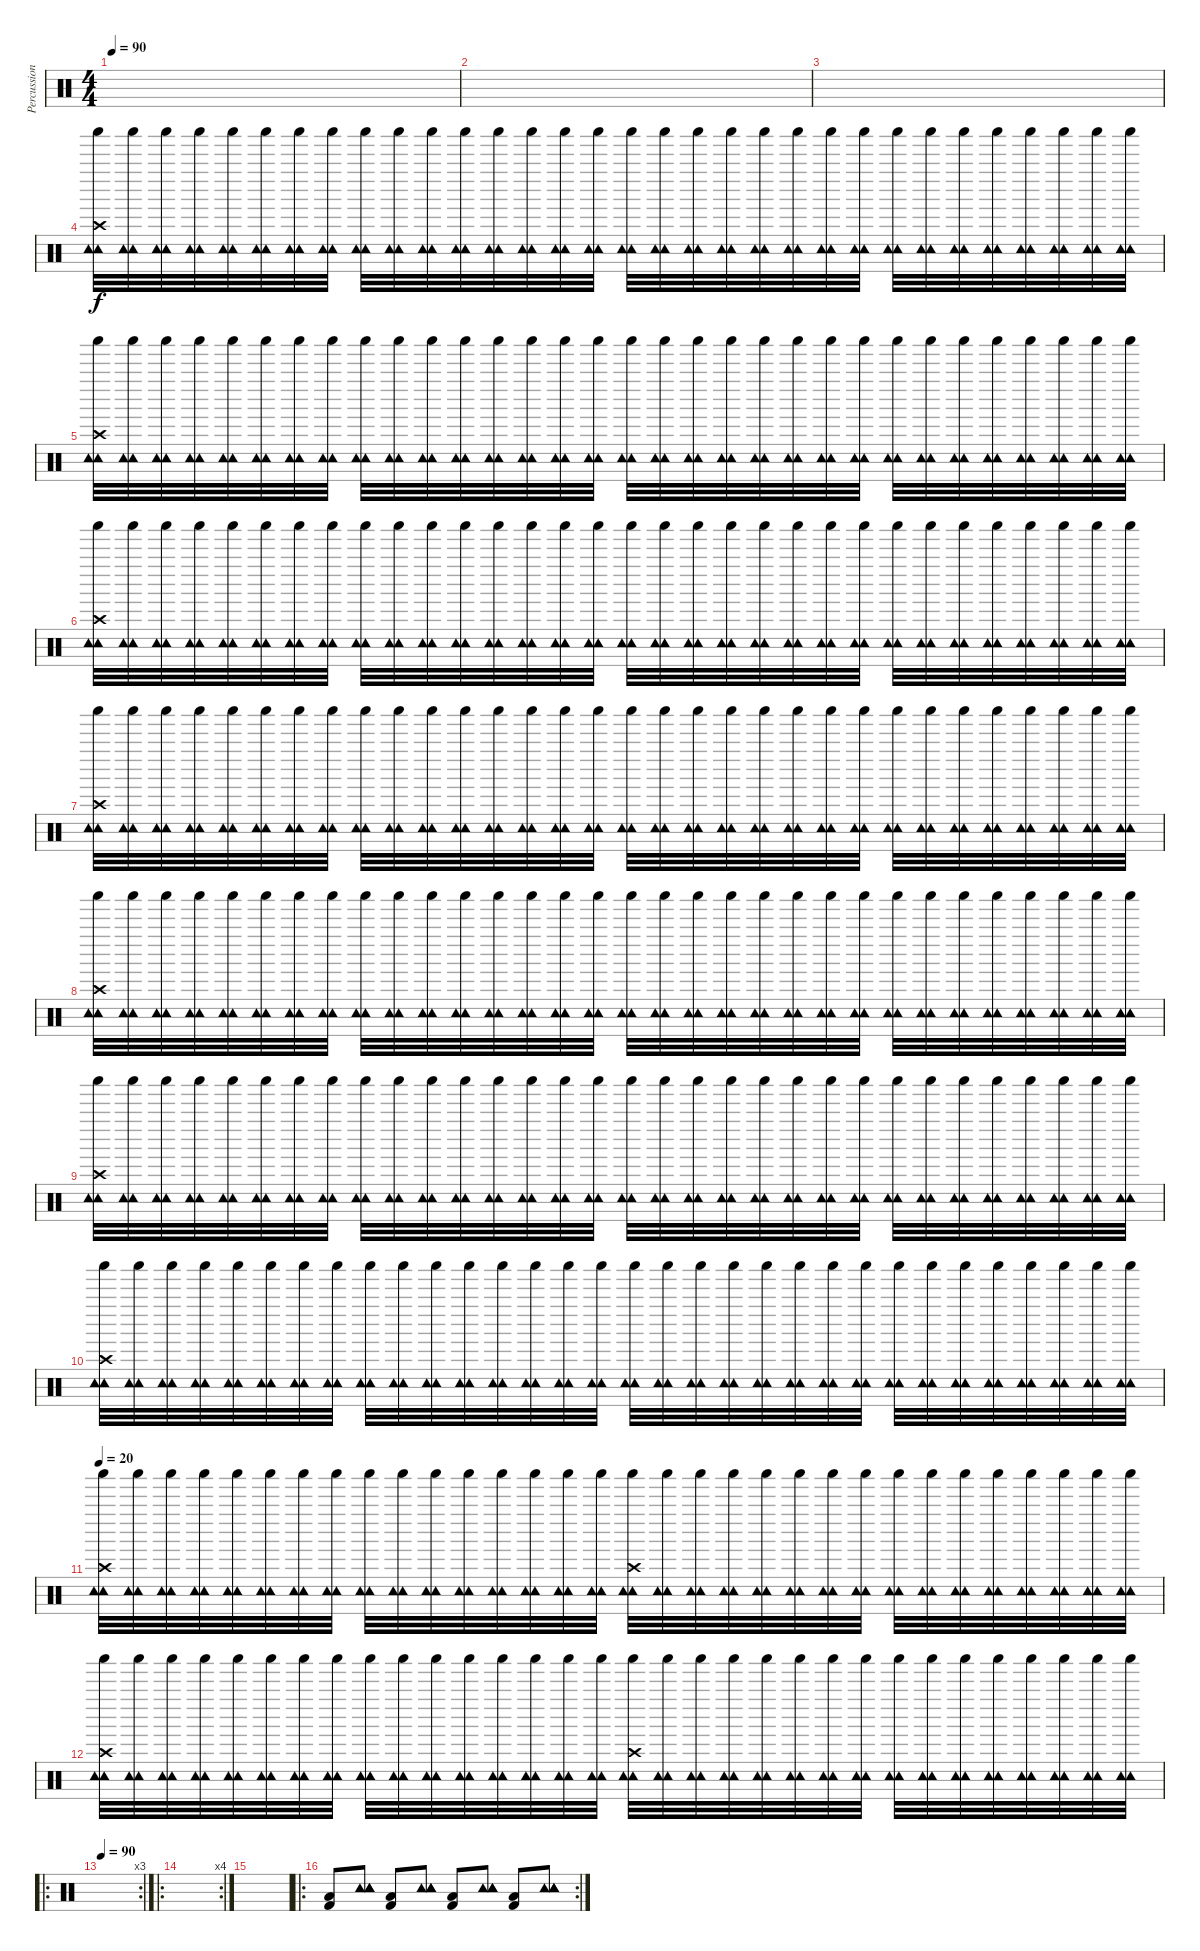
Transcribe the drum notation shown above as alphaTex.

\track ("Percussion" "Percussion") {instrument percussion}
\staff {score}
\articulation defaults
\ts (4 4)
\tempo 90
\clef neutral
\ks c
|
|
|
("Crash high (hit)" "Shaker (hit)" "Tambourine (hit)" "Tambourine (hit)").32 ("Shaker (hit)" "Tambourine (hit)" "Tambourine (hit)").32 ("Shaker (hit)" "Tambourine (hit)" "Tambourine (hit)").32 ("Shaker (hit)" "Tambourine (hit)" "Tambourine (hit)").32 ("Shaker (hit)" "Tambourine (hit)" "Tambourine (hit)").32 ("Shaker (hit)" "Tambourine (hit)" "Tambourine (hit)").32 ("Shaker (hit)" "Tambourine (hit)" "Tambourine (hit)").32 ("Shaker (hit)" "Tambourine (hit)" "Tambourine (hit)").32 ("Shaker (hit)" "Tambourine (hit)" "Tambourine (hit)").32 ("Shaker (hit)" "Tambourine (hit)" "Tambourine (hit)").32 ("Shaker (hit)" "Tambourine (hit)" "Tambourine (hit)").32 ("Shaker (hit)" "Tambourine (hit)" "Tambourine (hit)").32 ("Shaker (hit)" "Tambourine (hit)" "Tambourine (hit)").32 ("Shaker (hit)" "Tambourine (hit)" "Tambourine (hit)").32 ("Shaker (hit)" "Tambourine (hit)" "Tambourine (hit)").32 ("Shaker (hit)" "Tambourine (hit)" "Tambourine (hit)").32 ("Shaker (hit)" "Tambourine (hit)" "Tambourine (hit)").32 ("Shaker (hit)" "Tambourine (hit)" "Tambourine (hit)").32 ("Shaker (hit)" "Tambourine (hit)" "Tambourine (hit)").32 ("Shaker (hit)" "Tambourine (hit)" "Tambourine (hit)").32 ("Shaker (hit)" "Tambourine (hit)" "Tambourine (hit)").32 ("Shaker (hit)" "Tambourine (hit)" "Tambourine (hit)").32 ("Shaker (hit)" "Tambourine (hit)" "Tambourine (hit)").32 ("Shaker (hit)" "Tambourine (hit)" "Tambourine (hit)").32 ("Shaker (hit)" "Tambourine (hit)" "Tambourine (hit)").32 ("Shaker (hit)" "Tambourine (hit)" "Tambourine (hit)").32 ("Shaker (hit)" "Tambourine (hit)" "Tambourine (hit)").32 ("Shaker (hit)" "Tambourine (hit)" "Tambourine (hit)").32 ("Shaker (hit)" "Tambourine (hit)" "Tambourine (hit)").32 ("Shaker (hit)" "Tambourine (hit)" "Tambourine (hit)").32 ("Shaker (hit)" "Tambourine (hit)" "Tambourine (hit)").32 ("Shaker (hit)" "Tambourine (hit)" "Tambourine (hit)").32 |
("Crash high (hit)" "Shaker (hit)" "Tambourine (hit)" "Tambourine (hit)").32 ("Shaker (hit)" "Tambourine (hit)" "Tambourine (hit)").32 ("Shaker (hit)" "Tambourine (hit)" "Tambourine (hit)").32 ("Shaker (hit)" "Tambourine (hit)" "Tambourine (hit)").32 ("Shaker (hit)" "Tambourine (hit)" "Tambourine (hit)").32 ("Shaker (hit)" "Tambourine (hit)" "Tambourine (hit)").32 ("Shaker (hit)" "Tambourine (hit)" "Tambourine (hit)").32 ("Shaker (hit)" "Tambourine (hit)" "Tambourine (hit)").32 ("Shaker (hit)" "Tambourine (hit)" "Tambourine (hit)").32 ("Shaker (hit)" "Tambourine (hit)" "Tambourine (hit)").32 ("Shaker (hit)" "Tambourine (hit)" "Tambourine (hit)").32 ("Shaker (hit)" "Tambourine (hit)" "Tambourine (hit)").32 ("Shaker (hit)" "Tambourine (hit)" "Tambourine (hit)").32 ("Shaker (hit)" "Tambourine (hit)" "Tambourine (hit)").32 ("Shaker (hit)" "Tambourine (hit)" "Tambourine (hit)").32 ("Shaker (hit)" "Tambourine (hit)" "Tambourine (hit)").32 ("Shaker (hit)" "Tambourine (hit)" "Tambourine (hit)").32 ("Shaker (hit)" "Tambourine (hit)" "Tambourine (hit)").32 ("Shaker (hit)" "Tambourine (hit)" "Tambourine (hit)").32 ("Shaker (hit)" "Tambourine (hit)" "Tambourine (hit)").32 ("Shaker (hit)" "Tambourine (hit)" "Tambourine (hit)").32 ("Shaker (hit)" "Tambourine (hit)" "Tambourine (hit)").32 ("Shaker (hit)" "Tambourine (hit)" "Tambourine (hit)").32 ("Shaker (hit)" "Tambourine (hit)" "Tambourine (hit)").32 ("Shaker (hit)" "Tambourine (hit)" "Tambourine (hit)").32 ("Shaker (hit)" "Tambourine (hit)" "Tambourine (hit)").32 ("Shaker (hit)" "Tambourine (hit)" "Tambourine (hit)").32 ("Shaker (hit)" "Tambourine (hit)" "Tambourine (hit)").32 ("Shaker (hit)" "Tambourine (hit)" "Tambourine (hit)").32 ("Shaker (hit)" "Tambourine (hit)" "Tambourine (hit)").32 ("Shaker (hit)" "Tambourine (hit)" "Tambourine (hit)").32 ("Shaker (hit)" "Tambourine (hit)" "Tambourine (hit)").32 |
("Crash high (hit)" "Shaker (hit)" "Tambourine (hit)" "Tambourine (hit)").32 ("Shaker (hit)" "Tambourine (hit)" "Tambourine (hit)").32 ("Shaker (hit)" "Tambourine (hit)" "Tambourine (hit)").32 ("Shaker (hit)" "Tambourine (hit)" "Tambourine (hit)").32 ("Shaker (hit)" "Tambourine (hit)" "Tambourine (hit)").32 ("Shaker (hit)" "Tambourine (hit)" "Tambourine (hit)").32 ("Shaker (hit)" "Tambourine (hit)" "Tambourine (hit)").32 ("Shaker (hit)" "Tambourine (hit)" "Tambourine (hit)").32 ("Shaker (hit)" "Tambourine (hit)" "Tambourine (hit)").32 ("Shaker (hit)" "Tambourine (hit)" "Tambourine (hit)").32 ("Shaker (hit)" "Tambourine (hit)" "Tambourine (hit)").32 ("Shaker (hit)" "Tambourine (hit)" "Tambourine (hit)").32 ("Shaker (hit)" "Tambourine (hit)" "Tambourine (hit)").32 ("Shaker (hit)" "Tambourine (hit)" "Tambourine (hit)").32 ("Shaker (hit)" "Tambourine (hit)" "Tambourine (hit)").32 ("Shaker (hit)" "Tambourine (hit)" "Tambourine (hit)").32 ("Shaker (hit)" "Tambourine (hit)" "Tambourine (hit)").32 ("Shaker (hit)" "Tambourine (hit)" "Tambourine (hit)").32 ("Shaker (hit)" "Tambourine (hit)" "Tambourine (hit)").32 ("Shaker (hit)" "Tambourine (hit)" "Tambourine (hit)").32 ("Shaker (hit)" "Tambourine (hit)" "Tambourine (hit)").32 ("Shaker (hit)" "Tambourine (hit)" "Tambourine (hit)").32 ("Shaker (hit)" "Tambourine (hit)" "Tambourine (hit)").32 ("Shaker (hit)" "Tambourine (hit)" "Tambourine (hit)").32 ("Shaker (hit)" "Tambourine (hit)" "Tambourine (hit)").32 ("Shaker (hit)" "Tambourine (hit)" "Tambourine (hit)").32 ("Shaker (hit)" "Tambourine (hit)" "Tambourine (hit)").32 ("Shaker (hit)" "Tambourine (hit)" "Tambourine (hit)").32 ("Shaker (hit)" "Tambourine (hit)" "Tambourine (hit)").32 ("Shaker (hit)" "Tambourine (hit)" "Tambourine (hit)").32 ("Shaker (hit)" "Tambourine (hit)" "Tambourine (hit)").32 ("Shaker (hit)" "Tambourine (hit)" "Tambourine (hit)").32 |
("Crash high (hit)" "Shaker (hit)" "Tambourine (hit)" "Tambourine (hit)").32 ("Shaker (hit)" "Tambourine (hit)" "Tambourine (hit)").32 ("Shaker (hit)" "Tambourine (hit)" "Tambourine (hit)").32 ("Shaker (hit)" "Tambourine (hit)" "Tambourine (hit)").32 ("Shaker (hit)" "Tambourine (hit)" "Tambourine (hit)").32 ("Shaker (hit)" "Tambourine (hit)" "Tambourine (hit)").32 ("Shaker (hit)" "Tambourine (hit)" "Tambourine (hit)").32 ("Shaker (hit)" "Tambourine (hit)" "Tambourine (hit)").32 ("Shaker (hit)" "Tambourine (hit)" "Tambourine (hit)").32 ("Shaker (hit)" "Tambourine (hit)" "Tambourine (hit)").32 ("Shaker (hit)" "Tambourine (hit)" "Tambourine (hit)").32 ("Shaker (hit)" "Tambourine (hit)" "Tambourine (hit)").32 ("Shaker (hit)" "Tambourine (hit)" "Tambourine (hit)").32 ("Shaker (hit)" "Tambourine (hit)" "Tambourine (hit)").32 ("Shaker (hit)" "Tambourine (hit)" "Tambourine (hit)").32 ("Shaker (hit)" "Tambourine (hit)" "Tambourine (hit)").32 ("Shaker (hit)" "Tambourine (hit)" "Tambourine (hit)").32 ("Shaker (hit)" "Tambourine (hit)" "Tambourine (hit)").32 ("Shaker (hit)" "Tambourine (hit)" "Tambourine (hit)").32 ("Shaker (hit)" "Tambourine (hit)" "Tambourine (hit)").32 ("Shaker (hit)" "Tambourine (hit)" "Tambourine (hit)").32 ("Shaker (hit)" "Tambourine (hit)" "Tambourine (hit)").32 ("Shaker (hit)" "Tambourine (hit)" "Tambourine (hit)").32 ("Shaker (hit)" "Tambourine (hit)" "Tambourine (hit)").32 ("Shaker (hit)" "Tambourine (hit)" "Tambourine (hit)").32 ("Shaker (hit)" "Tambourine (hit)" "Tambourine (hit)").32 ("Shaker (hit)" "Tambourine (hit)" "Tambourine (hit)").32 ("Shaker (hit)" "Tambourine (hit)" "Tambourine (hit)").32 ("Shaker (hit)" "Tambourine (hit)" "Tambourine (hit)").32 ("Shaker (hit)" "Tambourine (hit)" "Tambourine (hit)").32 ("Shaker (hit)" "Tambourine (hit)" "Tambourine (hit)").32 ("Shaker (hit)" "Tambourine (hit)" "Tambourine (hit)").32 |
("Crash high (hit)" "Shaker (hit)" "Tambourine (hit)" "Tambourine (hit)").32 ("Shaker (hit)" "Tambourine (hit)" "Tambourine (hit)").32 ("Shaker (hit)" "Tambourine (hit)" "Tambourine (hit)").32 ("Shaker (hit)" "Tambourine (hit)" "Tambourine (hit)").32 ("Shaker (hit)" "Tambourine (hit)" "Tambourine (hit)").32 ("Shaker (hit)" "Tambourine (hit)" "Tambourine (hit)").32 ("Shaker (hit)" "Tambourine (hit)" "Tambourine (hit)").32 ("Shaker (hit)" "Tambourine (hit)" "Tambourine (hit)").32 ("Shaker (hit)" "Tambourine (hit)" "Tambourine (hit)").32 ("Shaker (hit)" "Tambourine (hit)" "Tambourine (hit)").32 ("Shaker (hit)" "Tambourine (hit)" "Tambourine (hit)").32 ("Shaker (hit)" "Tambourine (hit)" "Tambourine (hit)").32 ("Shaker (hit)" "Tambourine (hit)" "Tambourine (hit)").32 ("Shaker (hit)" "Tambourine (hit)" "Tambourine (hit)").32 ("Shaker (hit)" "Tambourine (hit)" "Tambourine (hit)").32 ("Shaker (hit)" "Tambourine (hit)" "Tambourine (hit)").32 ("Shaker (hit)" "Tambourine (hit)" "Tambourine (hit)").32 ("Shaker (hit)" "Tambourine (hit)" "Tambourine (hit)").32 ("Shaker (hit)" "Tambourine (hit)" "Tambourine (hit)").32 ("Shaker (hit)" "Tambourine (hit)" "Tambourine (hit)").32 ("Shaker (hit)" "Tambourine (hit)" "Tambourine (hit)").32 ("Shaker (hit)" "Tambourine (hit)" "Tambourine (hit)").32 ("Shaker (hit)" "Tambourine (hit)" "Tambourine (hit)").32 ("Shaker (hit)" "Tambourine (hit)" "Tambourine (hit)").32 ("Shaker (hit)" "Tambourine (hit)" "Tambourine (hit)").32 ("Shaker (hit)" "Tambourine (hit)" "Tambourine (hit)").32 ("Shaker (hit)" "Tambourine (hit)" "Tambourine (hit)").32 ("Shaker (hit)" "Tambourine (hit)" "Tambourine (hit)").32 ("Shaker (hit)" "Tambourine (hit)" "Tambourine (hit)").32 ("Shaker (hit)" "Tambourine (hit)" "Tambourine (hit)").32 ("Shaker (hit)" "Tambourine (hit)" "Tambourine (hit)").32 ("Shaker (hit)" "Tambourine (hit)" "Tambourine (hit)").32 |
("Crash high (hit)" "Shaker (hit)" "Tambourine (hit)" "Tambourine (hit)").32 ("Shaker (hit)" "Tambourine (hit)" "Tambourine (hit)").32 ("Shaker (hit)" "Tambourine (hit)" "Tambourine (hit)").32 ("Shaker (hit)" "Tambourine (hit)" "Tambourine (hit)").32 ("Shaker (hit)" "Tambourine (hit)" "Tambourine (hit)").32 ("Shaker (hit)" "Tambourine (hit)" "Tambourine (hit)").32 ("Shaker (hit)" "Tambourine (hit)" "Tambourine (hit)").32 ("Shaker (hit)" "Tambourine (hit)" "Tambourine (hit)").32 ("Shaker (hit)" "Tambourine (hit)" "Tambourine (hit)").32 ("Shaker (hit)" "Tambourine (hit)" "Tambourine (hit)").32 ("Shaker (hit)" "Tambourine (hit)" "Tambourine (hit)").32 ("Shaker (hit)" "Tambourine (hit)" "Tambourine (hit)").32 ("Shaker (hit)" "Tambourine (hit)" "Tambourine (hit)").32 ("Shaker (hit)" "Tambourine (hit)" "Tambourine (hit)").32 ("Shaker (hit)" "Tambourine (hit)" "Tambourine (hit)").32 ("Shaker (hit)" "Tambourine (hit)" "Tambourine (hit)").32 ("Shaker (hit)" "Tambourine (hit)" "Tambourine (hit)").32 ("Shaker (hit)" "Tambourine (hit)" "Tambourine (hit)").32 ("Shaker (hit)" "Tambourine (hit)" "Tambourine (hit)").32 ("Shaker (hit)" "Tambourine (hit)" "Tambourine (hit)").32 ("Shaker (hit)" "Tambourine (hit)" "Tambourine (hit)").32 ("Shaker (hit)" "Tambourine (hit)" "Tambourine (hit)").32 ("Shaker (hit)" "Tambourine (hit)" "Tambourine (hit)").32 ("Shaker (hit)" "Tambourine (hit)" "Tambourine (hit)").32 ("Shaker (hit)" "Tambourine (hit)" "Tambourine (hit)").32 ("Shaker (hit)" "Tambourine (hit)" "Tambourine (hit)").32 ("Shaker (hit)" "Tambourine (hit)" "Tambourine (hit)").32 ("Shaker (hit)" "Tambourine (hit)" "Tambourine (hit)").32 ("Shaker (hit)" "Tambourine (hit)" "Tambourine (hit)").32 ("Shaker (hit)" "Tambourine (hit)" "Tambourine (hit)").32 ("Shaker (hit)" "Tambourine (hit)" "Tambourine (hit)").32 ("Shaker (hit)" "Tambourine (hit)" "Tambourine (hit)").32 |
("Crash high (hit)" "Shaker (hit)" "Tambourine (hit)" "Tambourine (hit)").32 ("Shaker (hit)" "Tambourine (hit)" "Tambourine (hit)").32 ("Shaker (hit)" "Tambourine (hit)" "Tambourine (hit)").32 ("Shaker (hit)" "Tambourine (hit)" "Tambourine (hit)").32 ("Shaker (hit)" "Tambourine (hit)" "Tambourine (hit)").32 ("Shaker (hit)" "Tambourine (hit)" "Tambourine (hit)").32 ("Shaker (hit)" "Tambourine (hit)" "Tambourine (hit)").32 ("Shaker (hit)" "Tambourine (hit)" "Tambourine (hit)").32 ("Shaker (hit)" "Tambourine (hit)" "Tambourine (hit)").32 ("Shaker (hit)" "Tambourine (hit)" "Tambourine (hit)").32 ("Shaker (hit)" "Tambourine (hit)" "Tambourine (hit)").32 ("Shaker (hit)" "Tambourine (hit)" "Tambourine (hit)").32 ("Shaker (hit)" "Tambourine (hit)" "Tambourine (hit)").32 ("Shaker (hit)" "Tambourine (hit)" "Tambourine (hit)").32 ("Shaker (hit)" "Tambourine (hit)" "Tambourine (hit)").32 ("Shaker (hit)" "Tambourine (hit)" "Tambourine (hit)").32 ("Shaker (hit)" "Tambourine (hit)" "Tambourine (hit)").32 ("Shaker (hit)" "Tambourine (hit)" "Tambourine (hit)").32 ("Shaker (hit)" "Tambourine (hit)" "Tambourine (hit)").32 ("Shaker (hit)" "Tambourine (hit)" "Tambourine (hit)").32 ("Shaker (hit)" "Tambourine (hit)" "Tambourine (hit)").32 ("Shaker (hit)" "Tambourine (hit)" "Tambourine (hit)").32 ("Shaker (hit)" "Tambourine (hit)" "Tambourine (hit)").32 ("Shaker (hit)" "Tambourine (hit)" "Tambourine (hit)").32 ("Shaker (hit)" "Tambourine (hit)" "Tambourine (hit)").32 ("Shaker (hit)" "Tambourine (hit)" "Tambourine (hit)").32 ("Shaker (hit)" "Tambourine (hit)" "Tambourine (hit)").32 ("Shaker (hit)" "Tambourine (hit)" "Tambourine (hit)").32 ("Shaker (hit)" "Tambourine (hit)" "Tambourine (hit)").32 ("Shaker (hit)" "Tambourine (hit)" "Tambourine (hit)").32 ("Shaker (hit)" "Tambourine (hit)" "Tambourine (hit)").32 ("Shaker (hit)" "Tambourine (hit)" "Tambourine (hit)").32 |
\tempo 20
("Crash high (hit)" "Shaker (hit)" "Tambourine (hit)" "Tambourine (hit)").32 ("Shaker (hit)" "Tambourine (hit)" "Tambourine (hit)").32 ("Shaker (hit)" "Tambourine (hit)" "Tambourine (hit)").32 ("Shaker (hit)" "Tambourine (hit)" "Tambourine (hit)").32 ("Shaker (hit)" "Tambourine (hit)" "Tambourine (hit)").32 ("Shaker (hit)" "Tambourine (hit)" "Tambourine (hit)").32 ("Shaker (hit)" "Tambourine (hit)" "Tambourine (hit)").32 ("Shaker (hit)" "Tambourine (hit)" "Tambourine (hit)").32 ("Shaker (hit)" "Tambourine (hit)" "Tambourine (hit)").32 ("Shaker (hit)" "Tambourine (hit)" "Tambourine (hit)").32 ("Shaker (hit)" "Tambourine (hit)" "Tambourine (hit)").32 ("Shaker (hit)" "Tambourine (hit)" "Tambourine (hit)").32 ("Shaker (hit)" "Tambourine (hit)" "Tambourine (hit)").32 ("Shaker (hit)" "Tambourine (hit)" "Tambourine (hit)").32 ("Shaker (hit)" "Tambourine (hit)" "Tambourine (hit)").32 ("Shaker (hit)" "Tambourine (hit)" "Tambourine (hit)").32 ("Crash high (hit)" "Shaker (hit)" "Tambourine (hit)" "Tambourine (hit)").32 ("Shaker (hit)" "Tambourine (hit)" "Tambourine (hit)").32 ("Shaker (hit)" "Tambourine (hit)" "Tambourine (hit)").32 ("Shaker (hit)" "Tambourine (hit)" "Tambourine (hit)").32 ("Shaker (hit)" "Tambourine (hit)" "Tambourine (hit)").32 ("Shaker (hit)" "Tambourine (hit)" "Tambourine (hit)").32 ("Shaker (hit)" "Tambourine (hit)" "Tambourine (hit)").32 ("Shaker (hit)" "Tambourine (hit)" "Tambourine (hit)").32 ("Shaker (hit)" "Tambourine (hit)" "Tambourine (hit)").32 ("Shaker (hit)" "Tambourine (hit)" "Tambourine (hit)").32 ("Shaker (hit)" "Tambourine (hit)" "Tambourine (hit)").32 ("Shaker (hit)" "Tambourine (hit)" "Tambourine (hit)").32 ("Shaker (hit)" "Tambourine (hit)" "Tambourine (hit)").32 ("Shaker (hit)" "Tambourine (hit)" "Tambourine (hit)").32 ("Shaker (hit)" "Tambourine (hit)" "Tambourine (hit)").32 ("Shaker (hit)" "Tambourine (hit)" "Tambourine (hit)").32 |
("Crash high (hit)" "Shaker (hit)" "Tambourine (hit)" "Tambourine (hit)").32 ("Shaker (hit)" "Tambourine (hit)" "Tambourine (hit)").32 ("Shaker (hit)" "Tambourine (hit)" "Tambourine (hit)").32 ("Shaker (hit)" "Tambourine (hit)" "Tambourine (hit)").32 ("Shaker (hit)" "Tambourine (hit)" "Tambourine (hit)").32 ("Shaker (hit)" "Tambourine (hit)" "Tambourine (hit)").32 ("Shaker (hit)" "Tambourine (hit)" "Tambourine (hit)").32 ("Shaker (hit)" "Tambourine (hit)" "Tambourine (hit)").32 ("Shaker (hit)" "Tambourine (hit)" "Tambourine (hit)").32 ("Shaker (hit)" "Tambourine (hit)" "Tambourine (hit)").32 ("Shaker (hit)" "Tambourine (hit)" "Tambourine (hit)").32 ("Shaker (hit)" "Tambourine (hit)" "Tambourine (hit)").32 ("Shaker (hit)" "Tambourine (hit)" "Tambourine (hit)").32 ("Shaker (hit)" "Tambourine (hit)" "Tambourine (hit)").32 ("Shaker (hit)" "Tambourine (hit)" "Tambourine (hit)").32 ("Shaker (hit)" "Tambourine (hit)" "Tambourine (hit)").32 ("Crash high (hit)" "Shaker (hit)" "Tambourine (hit)" "Tambourine (hit)").32 ("Shaker (hit)" "Tambourine (hit)" "Tambourine (hit)").32 ("Shaker (hit)" "Tambourine (hit)" "Tambourine (hit)").32 ("Shaker (hit)" "Tambourine (hit)" "Tambourine (hit)").32 ("Shaker (hit)" "Tambourine (hit)" "Tambourine (hit)").32 ("Shaker (hit)" "Tambourine (hit)" "Tambourine (hit)").32 ("Shaker (hit)" "Tambourine (hit)" "Tambourine (hit)").32 ("Shaker (hit)" "Tambourine (hit)" "Tambourine (hit)").32 ("Shaker (hit)" "Tambourine (hit)" "Tambourine (hit)").32 ("Shaker (hit)" "Tambourine (hit)" "Tambourine (hit)").32 ("Shaker (hit)" "Tambourine (hit)" "Tambourine (hit)").32 ("Shaker (hit)" "Tambourine (hit)" "Tambourine (hit)").32 ("Shaker (hit)" "Tambourine (hit)" "Tambourine (hit)").32 ("Shaker (hit)" "Tambourine (hit)" "Tambourine (hit)").32 ("Shaker (hit)" "Tambourine (hit)" "Tambourine (hit)").32 ("Shaker (hit)" "Tambourine (hit)" "Tambourine (hit)").32 |
\ro
\rc 3
\tempo 90
|
\ro
\rc 4
|
|
\ro
\rc 2
("Kick (hit) 2" "Low Floor Tom (hit)").8 ("Tambourine (hit)" "Tambourine (hit)" "Tambourine (hit)" "Tambourine (hit)").8 ("Kick (hit) 2" "Low Floor Tom (hit)").8 ("Tambourine (hit)" "Tambourine (hit)" "Tambourine (hit)" "Tambourine (hit)").8 ("Kick (hit) 2" "Low Floor Tom (hit)").8 ("Tambourine (hit)" "Tambourine (hit)" "Tambourine (hit)" "Tambourine (hit)").8 ("Kick (hit) 2" "Low Floor Tom (hit)").8 ("Tambourine (hit)" "Tambourine (hit)" "Tambourine (hit)" "Tambourine (hit)").8
